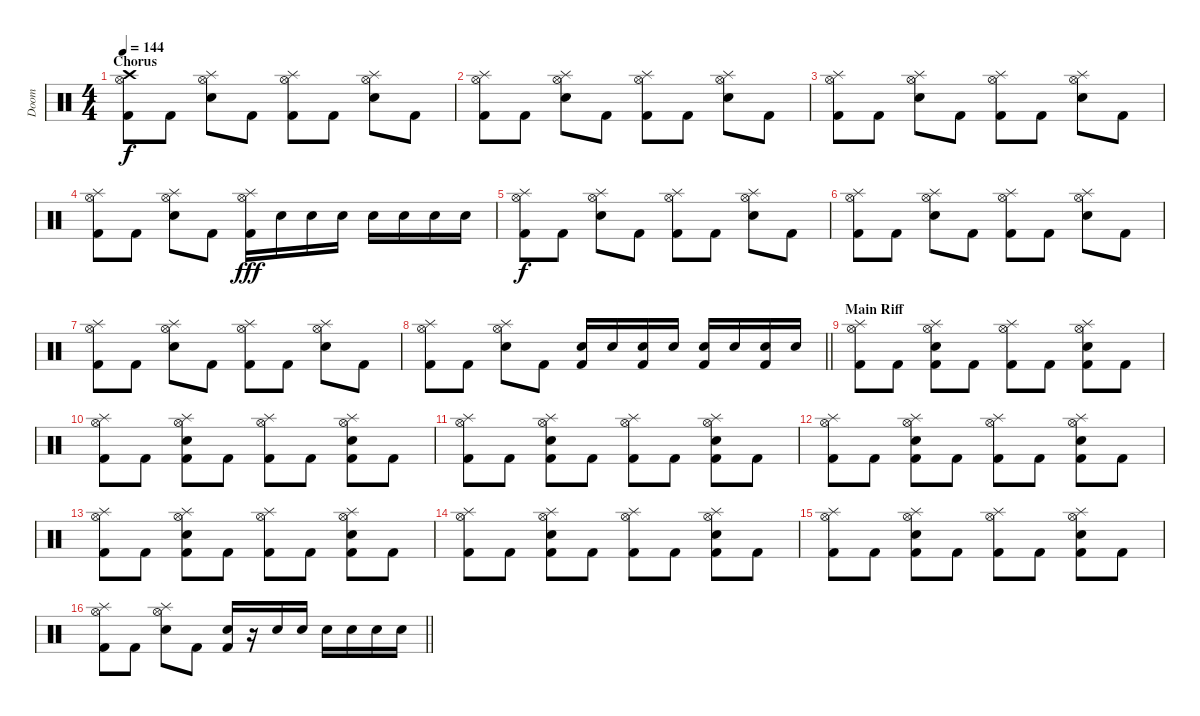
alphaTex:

\track ("Doom" "Doom") {instrument percussion}
\staff {score}
\articulation defaults
\ts (4 4)
\section ("" "Chorus")
\tempo 144
\clef neutral
\ks c
("Kick (hit) 2" "Hi-Hat (open)" "Crash high (hit)").8{dy f} "Kick (hit) 2".8 ("Snare (hit) 2" "Hi-Hat (open)" "Splash (hit)").8 "Kick (hit) 2".8 ("Kick (hit) 2" "Hi-Hat (open)" "Splash (hit)").8 "Kick (hit) 2".8 ("Snare (hit) 2" "Hi-Hat (open)" "Splash (hit)").8 "Kick (hit) 2".8 |
("Kick (hit) 2" "Hi-Hat (open)" "Splash (hit)").8 "Kick (hit) 2".8 ("Snare (hit) 2" "Hi-Hat (open)" "Splash (hit)").8 "Kick (hit) 2".8 ("Kick (hit) 2" "Hi-Hat (open)" "Splash (hit)").8 "Kick (hit) 2".8 ("Snare (hit) 2" "Hi-Hat (open)" "Splash (hit)").8 "Kick (hit) 2".8 |
("Kick (hit) 2" "Hi-Hat (open)" "Splash (hit)").8 "Kick (hit) 2".8 ("Snare (hit) 2" "Hi-Hat (open)" "Splash (hit)").8 "Kick (hit) 2".8 ("Kick (hit) 2" "Hi-Hat (open)" "Splash (hit)").8 "Kick (hit) 2".8 ("Snare (hit) 2" "Hi-Hat (open)" "Splash (hit)").8 "Kick (hit) 2".8 |
("Kick (hit) 2" "Hi-Hat (open)" "Splash (hit)").8 "Kick (hit) 2".8 ("Snare (hit) 2" "Hi-Hat (open)" "Splash (hit)").8 "Kick (hit) 2".8 ("Kick (hit) 2" "Hi-Hat (open)" "Splash (hit)").16{dy fff} "Snare (hit) 2".16 "Snare (hit) 2".16 "Snare (hit) 2".16 "Snare (hit) 2".16 "Snare (hit) 2".16 "Snare (hit) 2".16 "Snare (hit) 2".16 |
("Kick (hit) 2" "Hi-Hat (open)" "Splash (hit)").8{dy f} "Kick (hit) 2".8 ("Snare (hit) 2" "Hi-Hat (open)" "Splash (hit)").8 "Kick (hit) 2".8 ("Kick (hit) 2" "Hi-Hat (open)" "Splash (hit)").8 "Kick (hit) 2".8 ("Snare (hit) 2" "Hi-Hat (open)" "Splash (hit)").8 "Kick (hit) 2".8 |
("Kick (hit) 2" "Hi-Hat (open)" "Splash (hit)").8 "Kick (hit) 2".8 ("Snare (hit) 2" "Hi-Hat (open)" "Splash (hit)").8 "Kick (hit) 2".8 ("Kick (hit) 2" "Hi-Hat (open)" "Splash (hit)").8 "Kick (hit) 2".8 ("Snare (hit) 2" "Hi-Hat (open)" "Splash (hit)").8 "Kick (hit) 2".8 |
("Kick (hit) 2" "Hi-Hat (open)" "Splash (hit)").8 "Kick (hit) 2".8 ("Snare (hit) 2" "Hi-Hat (open)" "Splash (hit)").8 "Kick (hit) 2".8 ("Kick (hit) 2" "Hi-Hat (open)" "Splash (hit)").8 "Kick (hit) 2".8 ("Snare (hit) 2" "Hi-Hat (open)" "Splash (hit)").8 "Kick (hit) 2".8 |
\barLineRight lightlight
("Kick (hit) 2" "Hi-Hat (open)" "Splash (hit)").8 "Kick (hit) 2".8 ("Snare (hit) 2" "Hi-Hat (open)" "Splash (hit)").8 "Kick (hit) 2".8 ("Snare (hit) 2" "Kick (hit) 2").16 "Snare (hit) 2".16 ("Kick (hit) 2" "Snare (hit) 2").16 "Snare (hit) 2".16 ("Snare (hit) 2" "Kick (hit) 2").16 "Snare (hit) 2".16 ("Snare (hit) 2" "Kick (hit) 2").16 "Snare (hit) 2".16 |
\section ("" "Main Riff")
("Kick (hit) 2" "Hi-Hat (open)" "Splash (hit)").8 "Kick (hit) 2".8 ("Snare (hit) 2" "Hi-Hat (open)" "Splash (hit)" "Kick (hit) 2").8 "Kick (hit) 2".8 ("Kick (hit) 2" "Hi-Hat (open)" "Splash (hit)").8 "Kick (hit) 2".8 ("Snare (hit) 2" "Hi-Hat (open)" "Splash (hit)" "Kick (hit) 2").8 "Kick (hit) 2".8 |
("Kick (hit) 2" "Hi-Hat (open)" "Splash (hit)").8 "Kick (hit) 2".8 ("Snare (hit) 2" "Hi-Hat (open)" "Splash (hit)" "Kick (hit) 2").8 "Kick (hit) 2".8 ("Kick (hit) 2" "Hi-Hat (open)" "Splash (hit)").8 "Kick (hit) 2".8 ("Snare (hit) 2" "Hi-Hat (open)" "Splash (hit)" "Kick (hit) 2").8 "Kick (hit) 2".8 |
("Kick (hit) 2" "Hi-Hat (open)" "Splash (hit)").8 "Kick (hit) 2".8 ("Snare (hit) 2" "Hi-Hat (open)" "Splash (hit)" "Kick (hit) 2").8 "Kick (hit) 2".8 ("Kick (hit) 2" "Hi-Hat (open)" "Splash (hit)").8 "Kick (hit) 2".8 ("Snare (hit) 2" "Hi-Hat (open)" "Splash (hit)" "Kick (hit) 2").8 "Kick (hit) 2".8 |
("Kick (hit) 2" "Hi-Hat (open)" "Splash (hit)").8 "Kick (hit) 2".8 ("Snare (hit) 2" "Hi-Hat (open)" "Splash (hit)" "Kick (hit) 2").8 "Kick (hit) 2".8 ("Kick (hit) 2" "Hi-Hat (open)" "Splash (hit)").8 "Kick (hit) 2".8 ("Snare (hit) 2" "Hi-Hat (open)" "Splash (hit)" "Kick (hit) 2").8 "Kick (hit) 2".8 |
("Kick (hit) 2" "Hi-Hat (open)" "Splash (hit)").8 "Kick (hit) 2".8 ("Snare (hit) 2" "Hi-Hat (open)" "Splash (hit)" "Kick (hit) 2").8 "Kick (hit) 2".8 ("Kick (hit) 2" "Hi-Hat (open)" "Splash (hit)").8 "Kick (hit) 2".8 ("Snare (hit) 2" "Hi-Hat (open)" "Splash (hit)" "Kick (hit) 2").8 "Kick (hit) 2".8 |
("Kick (hit) 2" "Hi-Hat (open)" "Splash (hit)").8 "Kick (hit) 2".8 ("Snare (hit) 2" "Hi-Hat (open)" "Splash (hit)" "Kick (hit) 2").8 "Kick (hit) 2".8 ("Kick (hit) 2" "Hi-Hat (open)" "Splash (hit)").8 "Kick (hit) 2".8 ("Snare (hit) 2" "Hi-Hat (open)" "Splash (hit)" "Kick (hit) 2").8 "Kick (hit) 2".8 |
("Kick (hit) 2" "Hi-Hat (open)" "Splash (hit)").8 "Kick (hit) 2".8 ("Snare (hit) 2" "Hi-Hat (open)" "Splash (hit)" "Kick (hit) 2").8 "Kick (hit) 2".8 ("Kick (hit) 2" "Hi-Hat (open)" "Splash (hit)").8 "Kick (hit) 2".8 ("Snare (hit) 2" "Hi-Hat (open)" "Splash (hit)" "Kick (hit) 2").8 "Kick (hit) 2".8 |
\barLineRight lightlight
("Kick (hit) 2" "Hi-Hat (open)" "Splash (hit)").8 "Kick (hit) 2".8 ("Snare (hit) 2" "Hi-Hat (open)" "Splash (hit)").8 "Kick (hit) 2".8 ("Snare (hit) 2" "Kick (hit) 2").16 r.16 "Snare (hit) 2".16 "Snare (hit) 2".16 "Snare (hit) 2".16 "Snare (hit) 2".16 "Snare (hit) 2".16 "Snare (hit) 2".16
